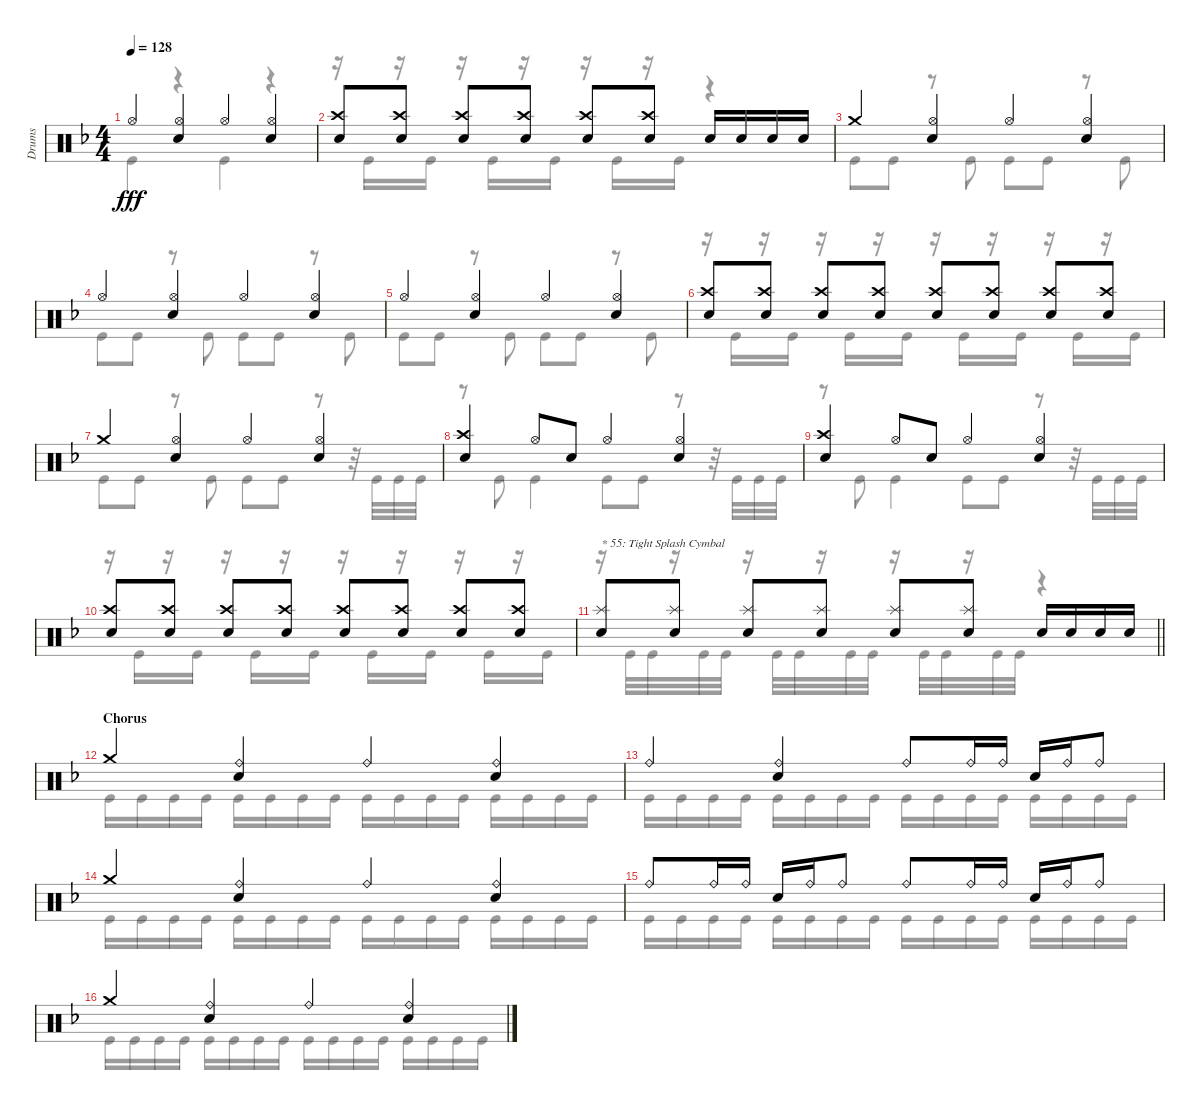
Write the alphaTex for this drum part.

\track ("Drums" "Drums") {instrument percussion}
\staff {score}
\articulation defaults
\voice
\ts (4 4)
\tempo 128
\clef neutral
\ks dminor "Hi-Hat (open)".4{dy fff}
("Hi-Hat (open)" "Electric Snare (hit)").4 "Hi-Hat (open)".4 ("Hi-Hat (open)" "Electric Snare (hit)").4 |
("Crash high (hit)" "Electric Snare (hit)").8 ("Crash high (hit)" "Electric Snare (hit)").8 ("Crash high (hit)" "Electric Snare (hit)").8 ("Crash high (hit)" "Electric Snare (hit)").8 ("Crash high (hit)" "Electric Snare (hit)").8 ("Crash high (hit)" "Electric Snare (hit)").8 "Electric Snare (hit)".16 "Electric Snare (hit)".16 "Electric Snare (hit)".16 "Electric Snare (hit)".16 |
"Crash medium (hit)".4 ("Hi-Hat (open)" "Electric Snare (hit)").4 "Hi-Hat (open)".4 ("Hi-Hat (open)" "Electric Snare (hit)").4 |
"Hi-Hat (open)".4 ("Hi-Hat (open)" "Electric Snare (hit)").4 "Hi-Hat (open)".4 ("Hi-Hat (open)" "Electric Snare (hit)").4 |
"Hi-Hat (open)".4 ("Hi-Hat (open)" "Electric Snare (hit)").4 "Hi-Hat (open)".4 ("Hi-Hat (open)" "Electric Snare (hit)").4 |
("Crash high (hit)" "Electric Snare (hit)").8 ("Crash high (hit)" "Electric Snare (hit)").8 ("Crash high (hit)" "Electric Snare (hit)").8 ("Crash high (hit)" "Electric Snare (hit)").8 ("Crash high (hit)" "Electric Snare (hit)").8 ("Crash high (hit)" "Electric Snare (hit)").8 ("Crash high (hit)" "Electric Snare (hit)").8 ("Crash high (hit)" "Electric Snare (hit)").8 |
"Crash medium (hit)".4 ("Hi-Hat (open)" "Electric Snare (hit)").4 "Hi-Hat (open)".4 ("Hi-Hat (open)" "Electric Snare (hit)").4 |
("Crash high (hit)" "Electric Snare (hit)").4 "Hi-Hat (open)".8 "Electric Snare (hit)".8 "Hi-Hat (open)".4 ("Hi-Hat (open)" "Electric Snare (hit)").4 |
("Crash high (hit)" "Electric Snare (hit)").4 "Hi-Hat (open)".8 "Electric Snare (hit)".8 "Hi-Hat (open)".4 ("Hi-Hat (open)" "Electric Snare (hit)").4 |
("Crash high (hit)" "Electric Snare (hit)").8 ("Crash high (hit)" "Electric Snare (hit)").8 ("Crash high (hit)" "Electric Snare (hit)").8 ("Crash high (hit)" "Electric Snare (hit)").8 ("Crash high (hit)" "Electric Snare (hit)").8 ("Crash high (hit)" "Electric Snare (hit)").8 ("Crash high (hit)" "Electric Snare (hit)").8 ("Crash high (hit)" "Electric Snare (hit)").8 |
\barLineRight lightlight
("Splash (hit)" "Electric Snare (hit)").8{txt "* 55: Tight Splash Cymbal"} ("Splash (hit)" "Electric Snare (hit)").8 ("Splash (hit)" "Electric Snare (hit)").8 ("Splash (hit)" "Electric Snare (hit)").8 ("Splash (hit)" "Electric Snare (hit)").8 ("Splash (hit)" "Electric Snare (hit)").8 "Electric Snare (hit)".16 "Electric Snare (hit)".16 "Electric Snare (hit)".16 "Electric Snare (hit)".16 |
\section ("" "Chorus")
"Crash medium (hit)".4 ("Ride (bell)" "Electric Snare (hit)").4 "Ride (bell)".4 ("Ride (bell)" "Electric Snare (hit)").4 |
"Ride (bell)".4 ("Ride (bell)" "Electric Snare (hit)").4 "Ride (bell)".8 "Ride (bell)".16 "Ride (bell)".16 "Electric Snare (hit)".16 "Ride (bell)".16 "Ride (bell)".8 |
"Crash medium (hit)".4 ("Ride (bell)" "Electric Snare (hit)").4 "Ride (bell)".4 ("Ride (bell)" "Electric Snare (hit)").4 |
"Ride (bell)".8 "Ride (bell)".16 "Ride (bell)".16 "Electric Snare (hit)".16 "Ride (bell)".16 "Ride (bell)".8 "Ride (bell)".8 "Ride (bell)".16 "Ride (bell)".16 "Electric Snare (hit)".16 "Ride (bell)".16 "Ride (bell)".8 |
"Crash medium (hit)".4 ("Ride (bell)" "Electric Snare (hit)").4 "Ride (bell)".4 ("Ride (bell)" "Electric Snare (hit)").4
\voice
\clef neutral
\ottava regular
\simile none
\ks dminor "Kick (hit)".4{dy fff}
r.4 "Kick (hit)".4 r.4 |
r.16 "Kick (hit)".16 r.16 "Kick (hit)".16 r.16 "Kick (hit)".16 r.16 "Kick (hit)".16 r.16 "Kick (hit)".16 r.16 "Kick (hit)".16 r.4 |
"Kick (hit)".8 "Kick (hit)".8 r.8 "Kick (hit)".8 "Kick (hit)".8 "Kick (hit)".8 r.8 "Kick (hit)".8 |
"Kick (hit)".8 "Kick (hit)".8 r.8 "Kick (hit)".8 "Kick (hit)".8 "Kick (hit)".8 r.8 "Kick (hit)".8 |
"Kick (hit)".8 "Kick (hit)".8 r.8 "Kick (hit)".8 "Kick (hit)".8 "Kick (hit)".8 r.8 "Kick (hit)".8 |
r.16 "Kick (hit)".16 r.16 "Kick (hit)".16 r.16 "Kick (hit)".16 r.16 "Kick (hit)".16 r.16 "Kick (hit)".16 r.16 "Kick (hit)".16 r.16 "Kick (hit)".16 r.16 "Kick (hit)".16 |
"Kick (hit)".8 "Kick (hit)".8 r.8 "Kick (hit)".8 "Kick (hit)".8 "Kick (hit)".8 r.8 r.32 "Kick (hit)".32 "Kick (hit)".32 "Kick (hit)".32 |
r.8 "Kick (hit)".8 "Kick (hit)".4 "Kick (hit)".8 "Kick (hit)".8 r.8 r.32 "Kick (hit)".32 "Kick (hit)".32 "Kick (hit)".32 |
r.8 "Kick (hit)".8 "Kick (hit)".4 "Kick (hit)".8 "Kick (hit)".8 r.8 r.32 "Kick (hit)".32 "Kick (hit)".32 "Kick (hit)".32 |
r.16 "Kick (hit)".16 r.16 "Kick (hit)".16 r.16 "Kick (hit)".16 r.16 "Kick (hit)".16 r.16 "Kick (hit)".16 r.16 "Kick (hit)".16 r.16 "Kick (hit)".16 r.16 "Kick (hit)".16 |
\barLineRight lightlight
r.16 "Kick (hit)".32 "Kick (hit)".32 r.16 "Kick (hit)".32 "Kick (hit)".32 r.16 "Kick (hit)".32 "Kick (hit)".32 r.16 "Kick (hit)".32 "Kick (hit)".32 r.16 "Kick (hit)".32 "Kick (hit)".32 r.16 "Kick (hit)".32 "Kick (hit)".32 r.4 |
"Kick (hit)".16 "Kick (hit)".16 "Kick (hit)".16 "Kick (hit)".16 "Kick (hit)".16 "Kick (hit)".16 "Kick (hit)".16 "Kick (hit)".16 "Kick (hit)".16 "Kick (hit)".16 "Kick (hit)".16 "Kick (hit)".16 "Kick (hit)".16 "Kick (hit)".16 "Kick (hit)".16 "Kick (hit)".16 |
"Kick (hit)".16 "Kick (hit)".16 "Kick (hit)".16 "Kick (hit)".16 "Kick (hit)".16 "Kick (hit)".16 "Kick (hit)".16 "Kick (hit)".16 "Kick (hit)".16 "Kick (hit)".16 "Kick (hit)".16 "Kick (hit)".16 "Kick (hit)".16 "Kick (hit)".16 "Kick (hit)".16 "Kick (hit)".16 |
"Kick (hit)".16 "Kick (hit)".16 "Kick (hit)".16 "Kick (hit)".16 "Kick (hit)".16 "Kick (hit)".16 "Kick (hit)".16 "Kick (hit)".16 "Kick (hit)".16 "Kick (hit)".16 "Kick (hit)".16 "Kick (hit)".16 "Kick (hit)".16 "Kick (hit)".16 "Kick (hit)".16 "Kick (hit)".16 |
"Kick (hit)".16 "Kick (hit)".16 "Kick (hit)".16 "Kick (hit)".16 "Kick (hit)".16 "Kick (hit)".16 "Kick (hit)".16 "Kick (hit)".16 "Kick (hit)".16 "Kick (hit)".16 "Kick (hit)".16 "Kick (hit)".16 "Kick (hit)".16 "Kick (hit)".16 "Kick (hit)".16 "Kick (hit)".16 |
"Kick (hit)".16 "Kick (hit)".16 "Kick (hit)".16 "Kick (hit)".16 "Kick (hit)".16 "Kick (hit)".16 "Kick (hit)".16 "Kick (hit)".16 "Kick (hit)".16 "Kick (hit)".16 "Kick (hit)".16 "Kick (hit)".16 "Kick (hit)".16 "Kick (hit)".16 "Kick (hit)".16 "Kick (hit)".16
